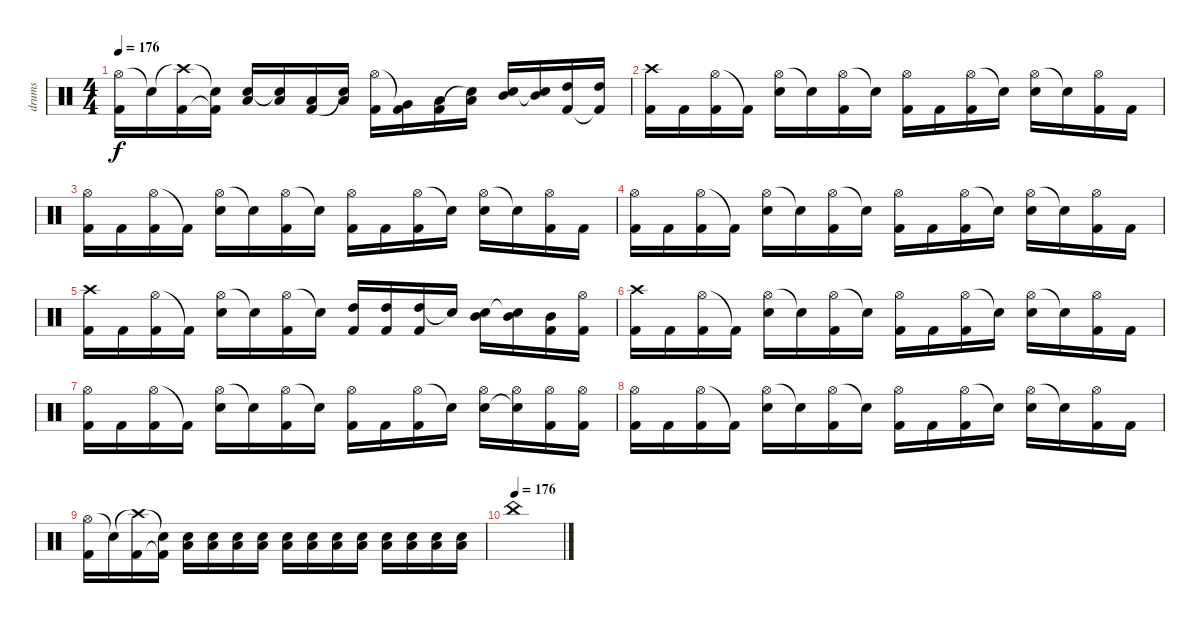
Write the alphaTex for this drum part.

\track ("drums" "drums") {instrument percussion}
\staff {score}
\articulation defaults
\ts (4 4)
\tempo 176
\clef neutral
\ks c
("Hi-Hat (open)" "Kick (hit) 2").16{dy f} "Snare (hit)"{t}.16 ("Crash high (hit)"{t} "Kick (hit) 2").16 ("Snare (hit)"{t} "Kick (hit) 2"{t}).16 ("Low Floor Tom (hit)" "Electric Snare (hit)").16 ("Low Floor Tom (hit)" "Electric Snare (hit)"{t}).16 ("Low Floor Tom (hit)" "Kick (hit) 2").16 ("Low Floor Tom (hit)" "Snare (hit)"{t}).16 ("Hi-Hat (open)" "Kick (hit) 2").16 ("Very Low Tom (hit)"{t} "Kick (hit) 2").16 ("Low Tom (hit)" "Kick (hit) 2").16 ("Low Tom (hit)" "Snare (hit)"{t}).16 ("Mid Tom (hit)" "Electric Snare (hit)").16 ("Mid Tom (hit)" "Snare (hit)"{t}).16 ("High Tom (hit)" "Kick (hit) 2").16 ("High Tom (hit)" "Kick (hit) 2"{t}).16 |
("Crash high (hit)" "Kick (hit) 2").16 "Kick (hit) 2".16 ("Hi-Hat (open)" "Kick (hit) 2").16 "Kick (hit) 2"{t}.16 ("Hi-Hat (open)" "Electric Snare (hit)").16 "Snare (hit)"{t}.16 ("Hi-Hat (open)" "Kick (hit) 2").16 "Snare (hit)"{t}.16 ("Hi-Hat (open)" "Kick (hit) 2").16 "Kick (hit) 2".16 ("Hi-Hat (open)" "Kick (hit) 2").16 "Snare (hit)"{t}.16 ("Hi-Hat (open)" "Electric Snare (hit)").16 "Snare (hit)"{t}.16 ("Hi-Hat (open)" "Kick (hit) 2").16 "Kick (hit) 2".16 |
("Hi-Hat (open)" "Kick (hit) 2").16 "Kick (hit) 2".16 ("Hi-Hat (open)" "Kick (hit) 2").16 "Kick (hit) 2"{t}.16 ("Hi-Hat (open)" "Electric Snare (hit)").16 "Snare (hit)"{t}.16 ("Hi-Hat (open)" "Kick (hit) 2").16 "Snare (hit)"{t}.16 ("Hi-Hat (open)" "Kick (hit) 2").16 "Kick (hit) 2".16 ("Hi-Hat (open)" "Kick (hit) 2").16 "Snare (hit)"{t}.16 ("Hi-Hat (open)" "Electric Snare (hit)").16 "Snare (hit)"{t}.16 ("Hi-Hat (open)" "Kick (hit) 2").16 "Kick (hit) 2".16 |
("Hi-Hat (open)" "Kick (hit) 2").16 "Kick (hit) 2".16 ("Hi-Hat (open)" "Kick (hit) 2").16 "Kick (hit) 2"{t}.16 ("Hi-Hat (open)" "Electric Snare (hit)").16 "Snare (hit)"{t}.16 ("Hi-Hat (open)" "Kick (hit) 2").16 "Snare (hit)"{t}.16 ("Hi-Hat (open)" "Kick (hit) 2").16 "Kick (hit) 2".16 ("Hi-Hat (open)" "Kick (hit) 2").16 "Snare (hit)"{t}.16 ("Hi-Hat (open)" "Electric Snare (hit)").16 "Snare (hit)"{t}.16 ("Hi-Hat (open)" "Kick (hit) 2").16 "Kick (hit) 2".16 |
("Crash high (hit)" "Kick (hit) 2").16 "Kick (hit) 2".16 ("Hi-Hat (open)" "Kick (hit) 2").16 "Kick (hit) 2"{t}.16 ("Hi-Hat (open)" "Electric Snare (hit)").16 "Snare (hit)"{t}.16 ("Hi-Hat (open)" "Kick (hit) 2").16 "Snare (hit)"{t}.16 ("High Tom (hit)" "Kick (hit) 2").16 ("High Tom (hit)" "Kick (hit) 2").16 ("High Tom (hit)" "Kick (hit) 2").16 "Snare (hit)"{t}.16 ("Mid Tom (hit)" "Electric Snare (hit)").16 ("Mid Tom (hit)" "Snare (hit)"{t}).16 ("Mid Tom (hit)" "Kick (hit) 2").16 ("Hi-Hat (open)" "Kick (hit) 2").16 |
("Crash high (hit)" "Kick (hit) 2").16 "Kick (hit) 2".16 ("Hi-Hat (open)" "Kick (hit) 2").16 "Kick (hit) 2"{t}.16 ("Hi-Hat (open)" "Electric Snare (hit)").16 "Snare (hit)"{t}.16 ("Hi-Hat (open)" "Kick (hit) 2").16 "Snare (hit)"{t}.16 ("Hi-Hat (open)" "Kick (hit) 2").16 "Kick (hit) 2".16 ("Hi-Hat (open)" "Kick (hit) 2").16 "Snare (hit)"{t}.16 ("Hi-Hat (open)" "Electric Snare (hit)").16 "Snare (hit)"{t}.16 ("Hi-Hat (open)" "Kick (hit) 2").16 "Kick (hit) 2".16 |
("Hi-Hat (open)" "Kick (hit) 2").16 "Kick (hit) 2".16 ("Hi-Hat (open)" "Kick (hit) 2").16 "Kick (hit) 2"{t}.16 ("Hi-Hat (open)" "Electric Snare (hit)").16 "Snare (hit)"{t}.16 ("Hi-Hat (open)" "Kick (hit) 2").16 "Snare (hit)"{t}.16 ("Hi-Hat (open)" "Kick (hit) 2").16 "Kick (hit) 2".16 ("Hi-Hat (open)" "Kick (hit) 2").16 "Snare (hit)"{t}.16 ("Hi-Hat (open)" "Electric Snare (hit)").16 ("Hi-Hat (open)" "Snare (hit)"{t}).16 ("Hi-Hat (open)" "Kick (hit) 2").16 ("Hi-Hat (open)" "Kick (hit) 2").16 |
("Hi-Hat (open)" "Kick (hit) 2").16 "Kick (hit) 2".16 ("Hi-Hat (open)" "Kick (hit) 2").16 "Kick (hit) 2"{t}.16 ("Hi-Hat (open)" "Electric Snare (hit)").16 "Snare (hit)"{t}.16 ("Hi-Hat (open)" "Kick (hit) 2").16 "Snare (hit)"{t}.16 ("Hi-Hat (open)" "Kick (hit) 2").16 "Kick (hit) 2".16 ("Hi-Hat (open)" "Kick (hit) 2").16 "Snare (hit)"{t}.16 ("Hi-Hat (open)" "Electric Snare (hit)").16 "Snare (hit)"{t}.16 ("Hi-Hat (open)" "Kick (hit) 2").16 "Kick (hit) 2".16 |
("Hi-Hat (open)" "Kick (hit) 2").16 "Snare (hit)"{t}.16 ("Crash high (hit)"{t} "Kick (hit) 2").16 ("Snare (hit)"{t} "Kick (hit) 2"{t}).16 ("Low Floor Tom (hit)" "Electric Snare (hit)").16 ("Low Floor Tom (hit)" "Electric Snare (hit)").16 ("Low Floor Tom (hit)" "Electric Snare (hit)").16 ("Low Floor Tom (hit)" "Electric Snare (hit)").16 ("Low Floor Tom (hit)" "Electric Snare (hit)").16 ("Low Floor Tom (hit)" "Electric Snare (hit)").16 ("Low Floor Tom (hit)" "Electric Snare (hit)").16 ("Low Floor Tom (hit)" "Electric Snare (hit)").16 ("Low Floor Tom (hit)" "Electric Snare (hit)").16 ("Low Floor Tom (hit)" "Electric Snare (hit)").16 ("Low Floor Tom (hit)" "Electric Snare (hit)").16 ("Low Floor Tom (hit)" "Electric Snare (hit)").16 |
\tempo (176)
"China (hit)".1
